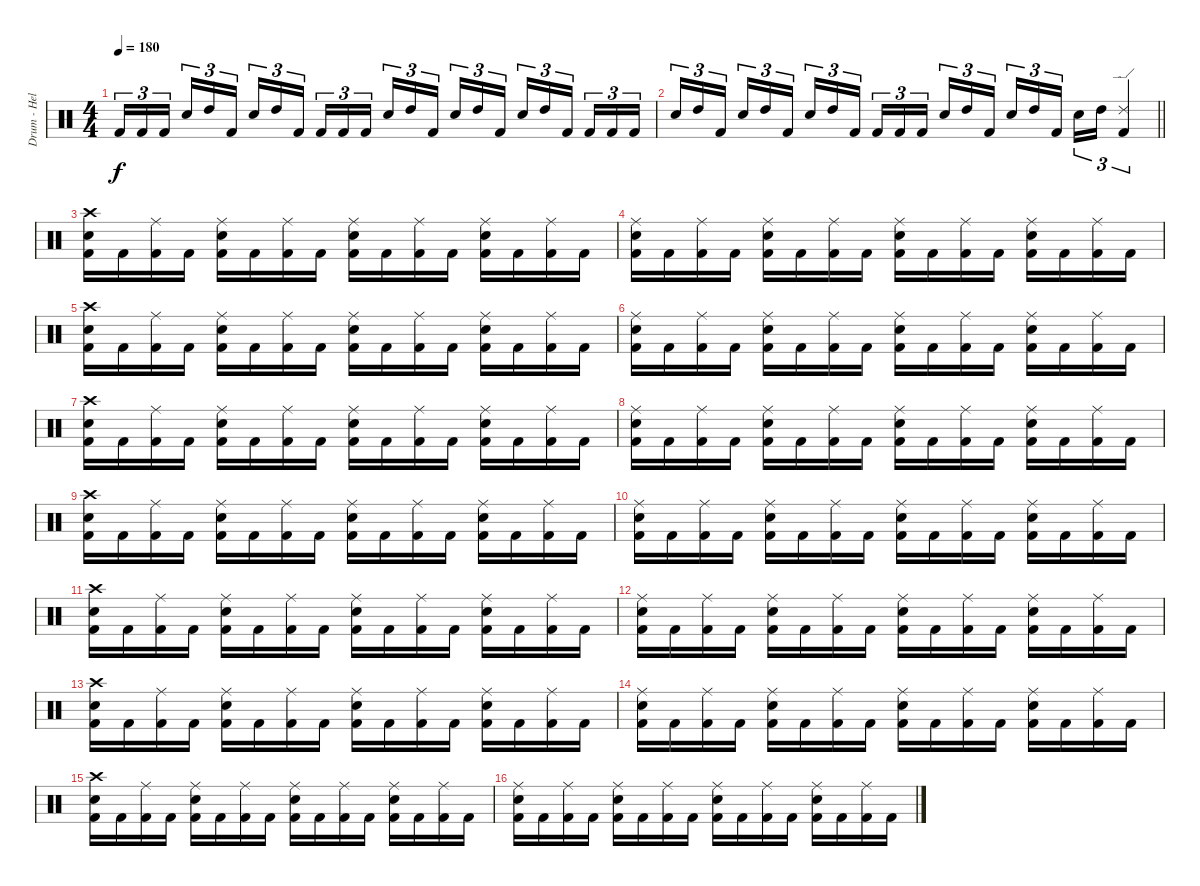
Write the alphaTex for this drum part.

\track ("Drum - Hellhammer" "Drum - Hel") {instrument percussion}
\staff {score}
\articulation defaults
\ts (4 4)
\tempo 180
\clef neutral
\ks c "Kick (hit) 2".16{tu (3 2) dy f} "Kick (hit) 2".16{tu (3 2)} "Kick (hit) 2".16{tu (3 2)} "Electric Snare (hit)".16{tu (3 2)} "High Tom (hit)".16{tu (3 2)} "Kick (hit) 2".16{tu (3 2)} "Electric Snare (hit)".16{tu (3 2)} "High Tom (hit)".16{tu (3 2)} "Kick (hit) 2".16{tu (3 2)} "Kick (hit) 2".16{tu (3 2)} "Kick (hit) 2".16{tu (3 2)} "Kick (hit) 2".16{tu (3 2)} "Electric Snare (hit)".16{tu (3 2)} "High Tom (hit)".16{tu (3 2)} "Kick (hit) 2".16{tu (3 2)} "Electric Snare (hit)".16{tu (3 2)} "High Tom (hit)".16{tu (3 2)} "Kick (hit) 2".16{tu (3 2)} "Electric Snare (hit)".16{tu (3 2)} "High Tom (hit)".16{tu (3 2)} "Kick (hit) 2".16{tu (3 2)} "Kick (hit) 2".16{tu (3 2)} "Kick (hit) 2".16{tu (3 2)} "Kick (hit) 2".16{tu (3 2)}
|
\barLineRight lightlight "Electric Snare (hit)".16{tu (3 2)} "High Tom (hit)".16{tu (3 2)} "Kick (hit) 2".16{tu (3 2)} "Electric Snare (hit)".16{tu (3 2)} "High Tom (hit)".16{tu (3 2)} "Kick (hit) 2".16{tu (3 2)} "Electric Snare (hit)".16{tu (3 2)} "High Tom (hit)".16{tu (3 2)} "Kick (hit) 2".16{tu (3 2)} "Kick (hit) 2".16{tu (3 2)} "Kick (hit) 2".16{tu (3 2)} "Kick (hit) 2".16{tu (3 2)} "Electric Snare (hit)".16{tu (3 2)} "High Tom (hit)".16{tu (3 2)} "Kick (hit) 2".16{tu (3 2)} "Electric Snare (hit)".16{tu (3 2)} "High Tom (hit)".16{tu (3 2)} "Kick (hit) 2".16{tu (3 2)} "Electric Snare (hit)".16{tu (3 2)} "High Tom (hit)".16{tu (3 2)}
("Ride (edge) 2" "Kick (hit) 2").4{tu (3 2)} |
\section ("" "")
("Crash high (hit)" "Electric Snare (hit)" "Kick (hit) 2").16 "Kick (hit) 2".16 ("Ride (middle)" "Kick (hit) 2").16 "Kick (hit) 2".16 ("Ride (middle)" "Electric Snare (hit)" "Kick (hit) 2").16 "Kick (hit) 2".16 ("Ride (middle)" "Kick (hit) 2").16 "Kick (hit) 2".16 ("Ride (middle)" "Electric Snare (hit)" "Kick (hit) 2").16 "Kick (hit) 2".16 ("Ride (middle)" "Kick (hit) 2").16 "Kick (hit) 2".16 ("Ride (middle)" "Electric Snare (hit)" "Kick (hit) 2").16 "Kick (hit) 2".16 ("Ride (middle)" "Kick (hit) 2").16 "Kick (hit) 2".16 |
("Ride (middle)" "Electric Snare (hit)" "Kick (hit) 2").16 "Kick (hit) 2".16 ("Ride (middle)" "Kick (hit) 2").16 "Kick (hit) 2".16 ("Ride (middle)" "Electric Snare (hit)" "Kick (hit) 2").16 "Kick (hit) 2".16 ("Ride (middle)" "Kick (hit) 2").16 "Kick (hit) 2".16 ("Ride (middle)" "Electric Snare (hit)" "Kick (hit) 2").16 "Kick (hit) 2".16 ("Ride (middle)" "Kick (hit) 2").16 "Kick (hit) 2".16 ("Ride (middle)" "Electric Snare (hit)" "Kick (hit) 2").16 "Kick (hit) 2".16 ("Ride (middle)" "Kick (hit) 2").16 "Kick (hit) 2".16 |
("Crash high (hit)" "Electric Snare (hit)" "Kick (hit) 2").16 "Kick (hit) 2".16 ("Ride (middle)" "Kick (hit) 2").16 "Kick (hit) 2".16 ("Ride (middle)" "Electric Snare (hit)" "Kick (hit) 2").16 "Kick (hit) 2".16 ("Ride (middle)" "Kick (hit) 2").16 "Kick (hit) 2".16 ("Ride (middle)" "Electric Snare (hit)" "Kick (hit) 2").16 "Kick (hit) 2".16 ("Ride (middle)" "Kick (hit) 2").16 "Kick (hit) 2".16 ("Ride (middle)" "Electric Snare (hit)" "Kick (hit) 2").16 "Kick (hit) 2".16 ("Ride (middle)" "Kick (hit) 2").16 "Kick (hit) 2".16 |
("Ride (middle)" "Electric Snare (hit)" "Kick (hit) 2").16 "Kick (hit) 2".16 ("Ride (middle)" "Kick (hit) 2").16 "Kick (hit) 2".16 ("Ride (middle)" "Electric Snare (hit)" "Kick (hit) 2").16 "Kick (hit) 2".16 ("Ride (middle)" "Kick (hit) 2").16 "Kick (hit) 2".16 ("Ride (middle)" "Electric Snare (hit)" "Kick (hit) 2").16 "Kick (hit) 2".16 ("Ride (middle)" "Kick (hit) 2").16 "Kick (hit) 2".16 ("Ride (middle)" "Electric Snare (hit)" "Kick (hit) 2").16 "Kick (hit) 2".16 ("Ride (middle)" "Kick (hit) 2").16 "Kick (hit) 2".16 |
("Crash high (hit)" "Electric Snare (hit)" "Kick (hit) 2").16 "Kick (hit) 2".16 ("Ride (middle)" "Kick (hit) 2").16 "Kick (hit) 2".16 ("Ride (middle)" "Electric Snare (hit)" "Kick (hit) 2").16 "Kick (hit) 2".16 ("Ride (middle)" "Kick (hit) 2").16 "Kick (hit) 2".16 ("Ride (middle)" "Electric Snare (hit)" "Kick (hit) 2").16 "Kick (hit) 2".16 ("Ride (middle)" "Kick (hit) 2").16 "Kick (hit) 2".16 ("Ride (middle)" "Electric Snare (hit)" "Kick (hit) 2").16 "Kick (hit) 2".16 ("Ride (middle)" "Kick (hit) 2").16 "Kick (hit) 2".16 |
("Ride (middle)" "Electric Snare (hit)" "Kick (hit) 2").16 "Kick (hit) 2".16 ("Ride (middle)" "Kick (hit) 2").16 "Kick (hit) 2".16 ("Ride (middle)" "Electric Snare (hit)" "Kick (hit) 2").16 "Kick (hit) 2".16 ("Ride (middle)" "Kick (hit) 2").16 "Kick (hit) 2".16 ("Ride (middle)" "Electric Snare (hit)" "Kick (hit) 2").16 "Kick (hit) 2".16 ("Ride (middle)" "Kick (hit) 2").16 "Kick (hit) 2".16 ("Ride (middle)" "Electric Snare (hit)" "Kick (hit) 2").16 "Kick (hit) 2".16 ("Ride (middle)" "Kick (hit) 2").16 "Kick (hit) 2".16 |
("Crash high (hit)" "Electric Snare (hit)" "Kick (hit) 2").16 "Kick (hit) 2".16 ("Ride (middle)" "Kick (hit) 2").16 "Kick (hit) 2".16 ("Ride (middle)" "Electric Snare (hit)" "Kick (hit) 2").16 "Kick (hit) 2".16 ("Ride (middle)" "Kick (hit) 2").16 "Kick (hit) 2".16 ("Ride (middle)" "Electric Snare (hit)" "Kick (hit) 2").16 "Kick (hit) 2".16 ("Ride (middle)" "Kick (hit) 2").16 "Kick (hit) 2".16 ("Ride (middle)" "Electric Snare (hit)" "Kick (hit) 2").16 "Kick (hit) 2".16 ("Ride (middle)" "Kick (hit) 2").16 "Kick (hit) 2".16 |
("Ride (middle)" "Electric Snare (hit)" "Kick (hit) 2").16 "Kick (hit) 2".16 ("Ride (middle)" "Kick (hit) 2").16 "Kick (hit) 2".16 ("Ride (middle)" "Electric Snare (hit)" "Kick (hit) 2").16 "Kick (hit) 2".16 ("Ride (middle)" "Kick (hit) 2").16 "Kick (hit) 2".16 ("Ride (middle)" "Electric Snare (hit)" "Kick (hit) 2").16 "Kick (hit) 2".16 ("Ride (middle)" "Kick (hit) 2").16 "Kick (hit) 2".16 ("Ride (middle)" "Electric Snare (hit)" "Kick (hit) 2").16 "Kick (hit) 2".16 ("Ride (middle)" "Kick (hit) 2").16 "Kick (hit) 2".16 |
("Crash high (hit)" "Electric Snare (hit)" "Kick (hit) 2").16 "Kick (hit) 2".16 ("Ride (middle)" "Kick (hit) 2").16 "Kick (hit) 2".16 ("Ride (middle)" "Electric Snare (hit)" "Kick (hit) 2").16 "Kick (hit) 2".16 ("Ride (middle)" "Kick (hit) 2").16 "Kick (hit) 2".16 ("Ride (middle)" "Electric Snare (hit)" "Kick (hit) 2").16 "Kick (hit) 2".16 ("Ride (middle)" "Kick (hit) 2").16 "Kick (hit) 2".16 ("Ride (middle)" "Electric Snare (hit)" "Kick (hit) 2").16 "Kick (hit) 2".16 ("Ride (middle)" "Kick (hit) 2").16 "Kick (hit) 2".16 |
("Ride (middle)" "Electric Snare (hit)" "Kick (hit) 2").16 "Kick (hit) 2".16 ("Ride (middle)" "Kick (hit) 2").16 "Kick (hit) 2".16 ("Ride (middle)" "Electric Snare (hit)" "Kick (hit) 2").16 "Kick (hit) 2".16 ("Ride (middle)" "Kick (hit) 2").16 "Kick (hit) 2".16 ("Ride (middle)" "Electric Snare (hit)" "Kick (hit) 2").16 "Kick (hit) 2".16 ("Ride (middle)" "Kick (hit) 2").16 "Kick (hit) 2".16 ("Ride (middle)" "Electric Snare (hit)" "Kick (hit) 2").16 "Kick (hit) 2".16 ("Ride (middle)" "Kick (hit) 2").16 "Kick (hit) 2".16 |
("Crash high (hit)" "Electric Snare (hit)" "Kick (hit) 2").16 "Kick (hit) 2".16 ("Ride (middle)" "Kick (hit) 2").16 "Kick (hit) 2".16 ("Ride (middle)" "Electric Snare (hit)" "Kick (hit) 2").16 "Kick (hit) 2".16 ("Ride (middle)" "Kick (hit) 2").16 "Kick (hit) 2".16 ("Ride (middle)" "Electric Snare (hit)" "Kick (hit) 2").16 "Kick (hit) 2".16 ("Ride (middle)" "Kick (hit) 2").16 "Kick (hit) 2".16 ("Ride (middle)" "Electric Snare (hit)" "Kick (hit) 2").16 "Kick (hit) 2".16 ("Ride (middle)" "Kick (hit) 2").16 "Kick (hit) 2".16 |
("Ride (middle)" "Electric Snare (hit)" "Kick (hit) 2").16 "Kick (hit) 2".16 ("Ride (middle)" "Kick (hit) 2").16 "Kick (hit) 2".16 ("Ride (middle)" "Electric Snare (hit)" "Kick (hit) 2").16 "Kick (hit) 2".16 ("Ride (middle)" "Kick (hit) 2").16 "Kick (hit) 2".16 ("Ride (middle)" "Electric Snare (hit)" "Kick (hit) 2").16 "Kick (hit) 2".16 ("Ride (middle)" "Kick (hit) 2").16 "Kick (hit) 2".16 ("Ride (middle)" "Electric Snare (hit)" "Kick (hit) 2").16 "Kick (hit) 2".16 ("Ride (middle)" "Kick (hit) 2").16 "Kick (hit) 2".16 |
("Crash high (hit)" "Electric Snare (hit)" "Kick (hit) 2").16 "Kick (hit) 2".16 ("Ride (middle)" "Kick (hit) 2").16 "Kick (hit) 2".16 ("Ride (middle)" "Electric Snare (hit)" "Kick (hit) 2").16 "Kick (hit) 2".16 ("Ride (middle)" "Kick (hit) 2").16 "Kick (hit) 2".16 ("Ride (middle)" "Electric Snare (hit)" "Kick (hit) 2").16 "Kick (hit) 2".16 ("Ride (middle)" "Kick (hit) 2").16 "Kick (hit) 2".16 ("Ride (middle)" "Electric Snare (hit)" "Kick (hit) 2").16 "Kick (hit) 2".16 ("Ride (middle)" "Kick (hit) 2").16 "Kick (hit) 2".16 |
("Ride (middle)" "Electric Snare (hit)" "Kick (hit) 2").16 "Kick (hit) 2".16 ("Ride (middle)" "Kick (hit) 2").16 "Kick (hit) 2".16 ("Ride (middle)" "Electric Snare (hit)" "Kick (hit) 2").16 "Kick (hit) 2".16 ("Ride (middle)" "Kick (hit) 2").16 "Kick (hit) 2".16 ("Ride (middle)" "Electric Snare (hit)" "Kick (hit) 2").16 "Kick (hit) 2".16 ("Ride (middle)" "Kick (hit) 2").16 "Kick (hit) 2".16 ("Ride (middle)" "Electric Snare (hit)" "Kick (hit) 2").16 "Kick (hit) 2".16 ("Ride (middle)" "Kick (hit) 2").16 "Kick (hit) 2".16
